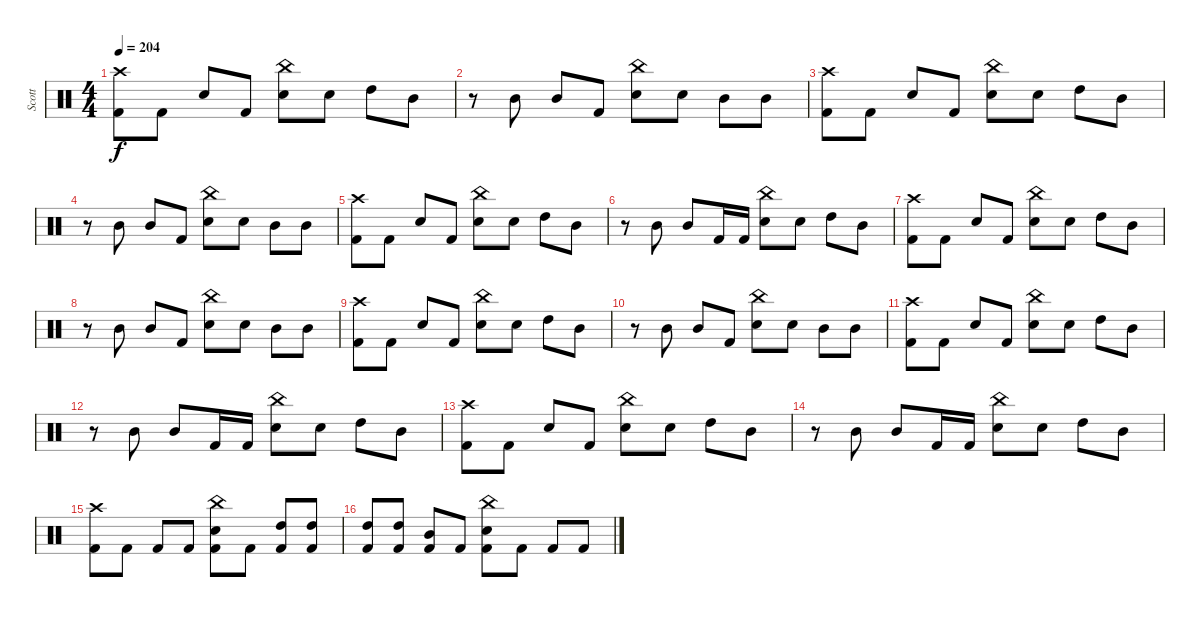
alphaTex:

\track ("Scott" "Scott") {instrument percussion}
\staff {score}
\articulation defaults
\ts (4 4)
\tempo 204
\clef neutral
\ks c
("Crash high (hit)" "Kick (hit) 2").8{dy f} "Kick (hit) 2".8 "Snare (hit) 2".8 "Kick (hit) 2".8 ("China (hit)" "Snare (hit) 2").8 "Snare (hit) 2".8 "High Tom (hit)".8 "Mid Tom (hit)".8 |
r.8 "Mid Tom (hit)".8 "Mid Tom (hit)".8 "Kick (hit) 2".8 ("China (hit)" "Snare (hit) 2").8 "Snare (hit) 2".8 "Mid Tom (hit)".8 "Mid Tom (hit)".8 |
("Crash high (hit)" "Kick (hit) 2").8 "Kick (hit) 2".8 "Snare (hit) 2".8 "Kick (hit) 2".8 ("China (hit)" "Snare (hit) 2").8 "Snare (hit) 2".8 "High Tom (hit)".8 "Mid Tom (hit)".8 |
r.8 "Mid Tom (hit)".8 "Mid Tom (hit)".8 "Kick (hit) 2".8 ("China (hit)" "Snare (hit) 2").8 "Snare (hit) 2".8 "Mid Tom (hit)".8 "Mid Tom (hit)".8 |
("Crash high (hit)" "Kick (hit) 2").8 "Kick (hit) 2".8 "Snare (hit) 2".8 "Kick (hit) 2".8 ("China (hit)" "Snare (hit) 2").8 "Snare (hit) 2".8 "High Tom (hit)".8 "Mid Tom (hit)".8 |
r.8 "Mid Tom (hit)".8 "Mid Tom (hit)".8 "Kick (hit) 2".16 "Kick (hit) 2".16 ("China (hit)" "Snare (hit) 2").8 "Snare (hit) 2".8 "High Tom (hit)".8 "Mid Tom (hit)".8 |
("Crash high (hit)" "Kick (hit) 2").8 "Kick (hit) 2".8 "Snare (hit) 2".8 "Kick (hit) 2".8 ("China (hit)" "Snare (hit) 2").8 "Snare (hit) 2".8 "High Tom (hit)".8 "Mid Tom (hit)".8 |
r.8 "Mid Tom (hit)".8 "Mid Tom (hit)".8 "Kick (hit) 2".8 ("China (hit)" "Snare (hit) 2").8 "Snare (hit) 2".8 "Mid Tom (hit)".8 "Mid Tom (hit)".8 |
("Crash high (hit)" "Kick (hit) 2").8 "Kick (hit) 2".8 "Snare (hit) 2".8 "Kick (hit) 2".8 ("China (hit)" "Snare (hit) 2").8 "Snare (hit) 2".8 "High Tom (hit)".8 "Mid Tom (hit)".8 |
r.8 "Mid Tom (hit)".8 "Mid Tom (hit)".8 "Kick (hit) 2".8 ("China (hit)" "Snare (hit) 2").8 "Snare (hit) 2".8 "Mid Tom (hit)".8 "Mid Tom (hit)".8 |
("Crash high (hit)" "Kick (hit) 2").8 "Kick (hit) 2".8 "Snare (hit) 2".8 "Kick (hit) 2".8 ("China (hit)" "Snare (hit) 2").8 "Snare (hit) 2".8 "High Tom (hit)".8 "Mid Tom (hit)".8 |
r.8 "Mid Tom (hit)".8 "Mid Tom (hit)".8 "Kick (hit) 2".16 "Kick (hit) 2".16 ("China (hit)" "Snare (hit) 2").8 "Snare (hit) 2".8 "High Tom (hit)".8 "Mid Tom (hit)".8 |
("Crash high (hit)" "Kick (hit) 2").8 "Kick (hit) 2".8 "Snare (hit) 2".8 "Kick (hit) 2".8 ("China (hit)" "Snare (hit) 2").8 "Snare (hit) 2".8 "High Tom (hit)".8 "Mid Tom (hit)".8 |
r.8 "Mid Tom (hit)".8 "Mid Tom (hit)".8 "Kick (hit) 2".16 "Kick (hit) 2".16 ("China (hit)" "Snare (hit) 2").8 "Snare (hit) 2".8 "High Tom (hit)".8 "Mid Tom (hit)".8 |
("Crash high (hit)" "Kick (hit) 2").8 "Kick (hit) 2".8 "Kick (hit) 2".8 "Kick (hit) 2".8 ("China (hit)" "Snare (hit) 2" "Kick (hit) 2").8 "Kick (hit) 2".8 ("High Tom (hit)" "Kick (hit) 2").8 ("High Tom (hit)" "Kick (hit) 2").8 |
("High Tom (hit)" "Kick (hit) 2").8 ("High Tom (hit)" "Kick (hit) 2").8 ("Mid Tom (hit)" "Kick (hit) 2").8 "Kick (hit) 2".8 ("China (hit)" "Snare (hit) 2" "Kick (hit) 2").8 "Kick (hit) 2".8 "Kick (hit) 2".8 "Kick (hit) 2".8
